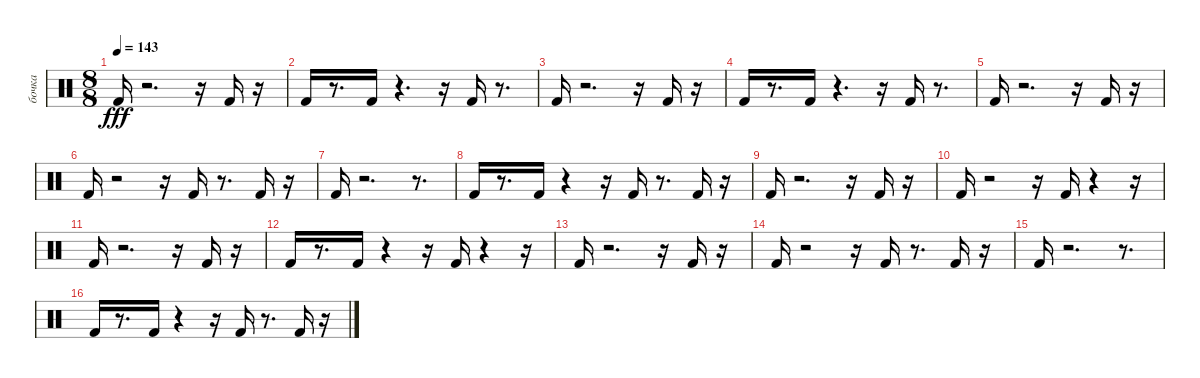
\track ("бочка" "бочка") {instrument percussion}
\staff {score}
\articulation defaults
\ts (8 8)
\tempo 143
\clef neutral
\ks c "Kick (hit) 2".16{dy fff}
r.2{d} r.16 "Kick (hit) 2".16 r.16 |
"Kick (hit) 2".16 r.8{d} "Kick (hit) 2".16 r.4{d} r.16 "Kick (hit) 2".16 r.8{d} |
"Kick (hit) 2".16 r.2{d} r.16 "Kick (hit) 2".16 r.16 |
"Kick (hit) 2".16 r.8{d} "Kick (hit) 2".16 r.4{d} r.16 "Kick (hit) 2".16 r.8{d} |
"Kick (hit) 2".16 r.2{d} r.16 "Kick (hit) 2".16 r.16 |
"Kick (hit) 2".16 r.2 r.16 "Kick (hit) 2".16 r.8{d} "Kick (hit) 2".16 r.16 |
"Kick (hit) 2".16 r.2{d} r.8{d} |
"Kick (hit) 2".16 r.8{d} "Kick (hit) 2".16 r.4 r.16 "Kick (hit) 2".16 r.8{d} "Kick (hit) 2".16 r.16 |
"Kick (hit) 2".16 r.2{d} r.16 "Kick (hit) 2".16 r.16 |
"Kick (hit) 2".16 r.2 r.16 "Kick (hit) 2".16 r.4 r.16 |
"Kick (hit) 2".16 r.2{d} r.16 "Kick (hit) 2".16 r.16 |
"Kick (hit) 2".16 r.8{d} "Kick (hit) 2".16 r.4 r.16 "Kick (hit) 2".16 r.4 r.16 |
"Kick (hit) 2".16 r.2{d} r.16 "Kick (hit) 2".16 r.16 |
"Kick (hit) 2".16 r.2 r.16 "Kick (hit) 2".16 r.8{d} "Kick (hit) 2".16 r.16 |
"Kick (hit) 2".16 r.2{d} r.8{d} |
"Kick (hit) 2".16 r.8{d} "Kick (hit) 2".16 r.4 r.16 "Kick (hit) 2".16 r.8{d} "Kick (hit) 2".16 r.16
